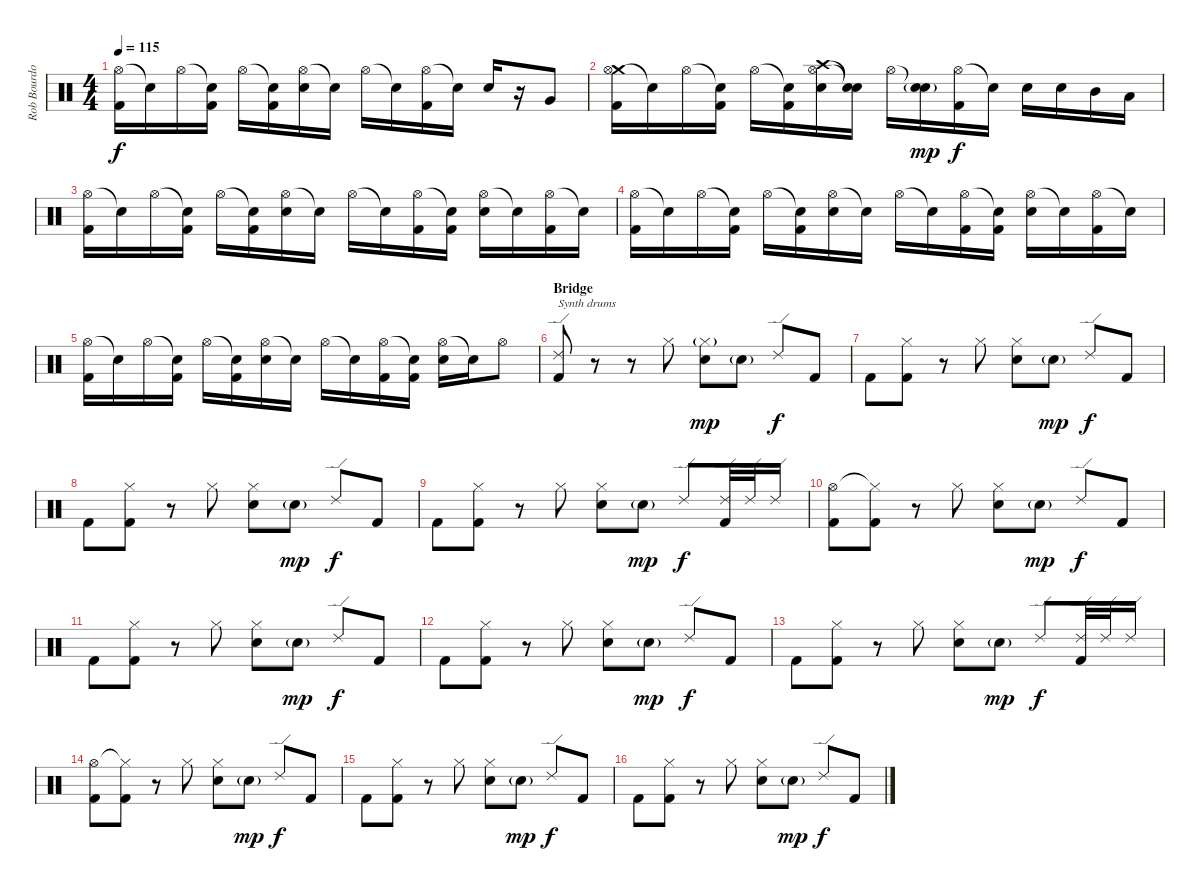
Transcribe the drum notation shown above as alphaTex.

\track ("Rob Bourdon (Drums)" "Rob Bourdo") {instrument percussion}
\staff {score}
\articulation defaults
\ts (4 4)
\tempo 115
\clef neutral
\ks c
("Hi-Hat (open)" "Kick (hit) 2").16{dy f} "Snare (hit)"{t}.16 "Hi-Hat (open)".16 ("Snare (hit)"{t} "Kick (hit) 2").16 "Hi-Hat (open)".16 ("Snare (hit)"{t} "Kick (hit) 2").16 ("Hi-Hat (open)" "Electric Snare (hit)").16 "Snare (hit)"{t}.16 "Hi-Hat (open)".16 "Snare (hit)"{t}.16 ("Hi-Hat (open)" "Kick (hit) 2").16 "Snare (hit)"{t}.16 "Electric Snare (hit)".16 r.16 "Very Low Tom (hit)".8 |
("Crash medium (hit)" "Hi-Hat (open)" "Kick (hit) 2").16 "Snare (hit)"{t}.16 "Hi-Hat (open)".16 ("Snare (hit)"{t} "Kick (hit) 2").16 "Hi-Hat (open)".16 ("Snare (hit)"{t} "Kick (hit) 2").16 ("Crash high (hit)" "Hi-Hat (open)" "Electric Snare (hit)").16 ("Snare (hit)"{t} "Snare (hit)"{t}).16 "Hi-Hat (open)".16 ("Snare (hit)"{t} "Electric Snare (hit)"{g}).16{dy mp} ("Hi-Hat (open)" "Kick (hit) 2").16{dy f} "Snare (hit)"{t}.16 "Electric Snare (hit)".16 "Electric Snare (hit)".16 "Mid Tom (hit)".16 "Low Tom (hit)".16 |
("Hi-Hat (open)" "Kick (hit) 2").16 "Snare (hit)"{t}.16 "Hi-Hat (open)".16 ("Snare (hit)"{t} "Kick (hit) 2").16 "Hi-Hat (open)".16 ("Snare (hit)"{t} "Kick (hit) 2").16 ("Hi-Hat (open)" "Electric Snare (hit)").16 "Snare (hit)"{t}.16 "Hi-Hat (open)".16 "Snare (hit)"{t}.16 ("Hi-Hat (open)" "Kick (hit) 2").16 ("Snare (hit)"{t} "Kick (hit) 2").16 ("Hi-Hat (open)" "Electric Snare (hit)").16 "Snare (hit)"{t}.16 ("Hi-Hat (open)" "Kick (hit) 2").16 "Snare (hit)"{t}.16 |
("Hi-Hat (open)" "Kick (hit) 2").16 "Snare (hit)"{t}.16 "Hi-Hat (open)".16 ("Snare (hit)"{t} "Kick (hit) 2").16 "Hi-Hat (open)".16 ("Snare (hit)"{t} "Kick (hit) 2").16 ("Hi-Hat (open)" "Electric Snare (hit)").16 "Snare (hit)"{t}.16 "Hi-Hat (open)".16 "Snare (hit)"{t}.16 ("Hi-Hat (open)" "Kick (hit) 2").16 ("Snare (hit)"{t} "Kick (hit) 2").16 ("Hi-Hat (open)" "Electric Snare (hit)").16 "Snare (hit)"{t}.16 ("Hi-Hat (open)" "Kick (hit) 2").16 "Snare (hit)"{t}.16 |
("Hi-Hat (open)" "Kick (hit) 2").16 "Snare (hit)"{t}.16 "Hi-Hat (open)".16 ("Snare (hit)"{t} "Kick (hit) 2").16 "Hi-Hat (open)".16 ("Snare (hit)"{t} "Kick (hit) 2").16 ("Hi-Hat (open)" "Electric Snare (hit)").16 "Snare (hit)"{t}.16 "Hi-Hat (open)".16 "Snare (hit)"{t}.16 ("Hi-Hat (open)" "Kick (hit) 2").16 ("Snare (hit)"{t} "Kick (hit) 2").16 ("Hi-Hat (open)" "Electric Snare (hit)").16 "Snare (hit)"{t}.16 "Hi-Hat (open)".8 |
\section ("" "Bridge")
("Ride (edge) 2" "Kick (hit) 2").8{txt "Synth drums" volume 6} r.8 r.8 "Hi-Hat (closed)".8 ("Hi-Hat (closed)"{g} "Electric Snare (hit)").8{dy mp volume 6} "Electric Snare (hit)"{g}.8 "Ride (edge) 2".8{dy f} "Kick (hit) 2".8 |
"Kick (hit) 2".8{volume 6} ("Hi-Hat (closed)" "Kick (hit) 2").8 r.8 "Hi-Hat (closed)".8 ("Hi-Hat (closed)" "Electric Snare (hit)").8{volume 6} "Electric Snare (hit)"{g}.8{dy mp} "Ride (edge) 2".8{dy f} "Kick (hit) 2".8 |
"Kick (hit) 2".8{volume 6} ("Hi-Hat (closed)" "Kick (hit) 2").8 r.8 "Hi-Hat (closed)".8 ("Hi-Hat (closed)" "Electric Snare (hit)").8{volume 6} "Electric Snare (hit)"{g}.8{dy mp} "Ride (edge) 2".8{dy f} "Kick (hit) 2".8 |
"Kick (hit) 2".8{volume 6} ("Hi-Hat (closed)" "Kick (hit) 2").8 r.8 "Hi-Hat (closed)".8 ("Hi-Hat (closed)" "Electric Snare (hit)").8{volume 6} "Electric Snare (hit)"{g}.8{dy mp} "Ride (edge) 2".8{dy f} ("Ride (edge) 2" "Kick (hit) 2").32 "Ride (edge) 2".32 "Ride (edge) 2".16 |
("Hi-Hat (open)" "Kick (hit) 2").8{volume 6} ("Hi-Hat (closed)"{t} "Kick (hit) 2").8 r.8 "Hi-Hat (closed)".8 ("Hi-Hat (closed)" "Electric Snare (hit)").8{volume 6} "Electric Snare (hit)"{g}.8{dy mp} "Ride (edge) 2".8{dy f} "Kick (hit) 2".8 |
"Kick (hit) 2".8{volume 6} ("Hi-Hat (closed)" "Kick (hit) 2").8 r.8 "Hi-Hat (closed)".8 ("Hi-Hat (closed)" "Electric Snare (hit)").8{volume 6} "Electric Snare (hit)"{g}.8{dy mp} "Ride (edge) 2".8{dy f} "Kick (hit) 2".8 |
"Kick (hit) 2".8{volume 6} ("Hi-Hat (closed)" "Kick (hit) 2").8 r.8 "Hi-Hat (closed)".8 ("Hi-Hat (closed)" "Electric Snare (hit)").8{volume 6} "Electric Snare (hit)"{g}.8{dy mp} "Ride (edge) 2".8{dy f} "Kick (hit) 2".8 |
"Kick (hit) 2".8{volume 6} ("Hi-Hat (closed)" "Kick (hit) 2").8 r.8 "Hi-Hat (closed)".8 ("Hi-Hat (closed)" "Electric Snare (hit)").8{volume 6} "Electric Snare (hit)"{g}.8{dy mp} "Ride (edge) 2".8{dy f} ("Ride (edge) 2" "Kick (hit) 2").32 "Ride (edge) 2".32 "Ride (edge) 2".16 |
("Hi-Hat (open)" "Kick (hit) 2").8{volume 6} ("Hi-Hat (closed)"{t} "Kick (hit) 2").8 r.8 "Hi-Hat (closed)".8 ("Hi-Hat (closed)" "Electric Snare (hit)").8{volume 6} "Electric Snare (hit)"{g}.8{dy mp} "Ride (edge) 2".8{dy f} "Kick (hit) 2".8 |
"Kick (hit) 2".8{volume 6} ("Hi-Hat (closed)" "Kick (hit) 2").8 r.8 "Hi-Hat (closed)".8 ("Hi-Hat (closed)" "Electric Snare (hit)").8{volume 6} "Electric Snare (hit)"{g}.8{dy mp} "Ride (edge) 2".8{dy f} "Kick (hit) 2".8 |
"Kick (hit) 2".8{volume 6} ("Hi-Hat (closed)" "Kick (hit) 2").8 r.8 "Hi-Hat (closed)".8 ("Hi-Hat (closed)" "Electric Snare (hit)").8{volume 6} "Electric Snare (hit)"{g}.8{dy mp} "Ride (edge) 2".8{dy f} "Kick (hit) 2".8
